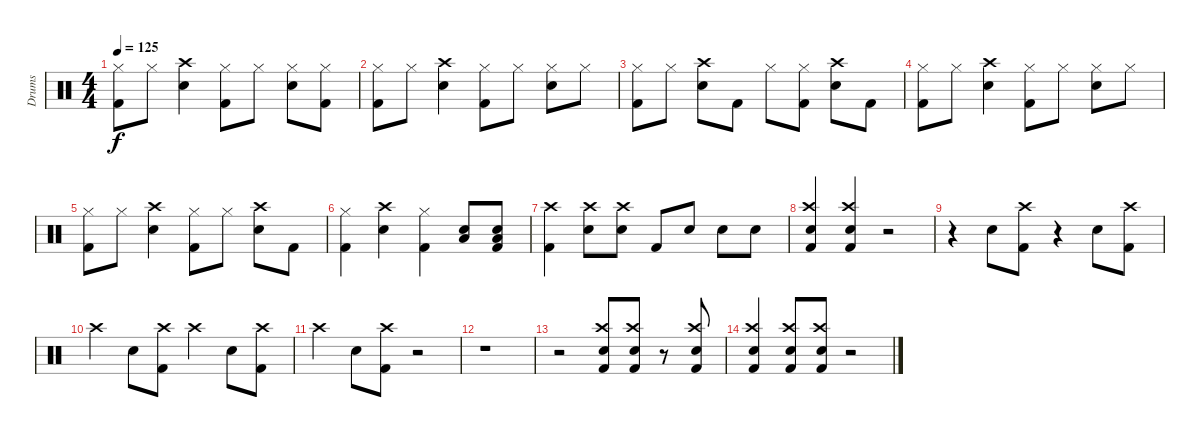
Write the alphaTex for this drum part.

\track ("Drums" "Drums") {instrument percussion}
\staff {score}
\articulation defaults
\ts (4 4)
\tempo 125
\clef neutral
\ks c
("Hi-Hat (closed)" "Kick (hit) 2").8{dy f} "Hi-Hat (closed)".8 ("Crash high (hit)" "Electric Snare (hit)").4 ("Hi-Hat (closed)" "Kick (hit) 2").8 "Hi-Hat (closed)".8 ("Hi-Hat (closed)" "Electric Snare (hit)").8 ("Hi-Hat (closed)" "Kick (hit) 2").8 |
("Hi-Hat (closed)" "Kick (hit) 2").8 "Hi-Hat (closed)".8 ("Crash high (hit)" "Electric Snare (hit)").4 ("Hi-Hat (closed)" "Kick (hit) 2").8 "Hi-Hat (closed)".8 ("Hi-Hat (closed)" "Electric Snare (hit)").8 "Hi-Hat (closed)".8 |
("Hi-Hat (closed)" "Kick (hit) 2").8 "Hi-Hat (closed)".8 ("Crash high (hit)" "Electric Snare (hit)").8 "Kick (hit) 2".8 "Hi-Hat (closed)".8 ("Hi-Hat (closed)" "Kick (hit) 2").8 ("Crash high (hit)" "Electric Snare (hit)").8 "Kick (hit) 2".8 |
("Hi-Hat (closed)" "Kick (hit) 2").8 "Hi-Hat (closed)".8 ("Crash high (hit)" "Electric Snare (hit)").4 ("Hi-Hat (closed)" "Kick (hit) 2").8 "Hi-Hat (closed)".8 ("Hi-Hat (closed)" "Electric Snare (hit)").8 "Hi-Hat (closed)".8 |
("Hi-Hat (closed)" "Kick (hit) 2").8 "Hi-Hat (closed)".8 ("Crash high (hit)" "Electric Snare (hit)").4 ("Hi-Hat (closed)" "Kick (hit) 2").8 "Hi-Hat (closed)".8 ("Crash high (hit)" "Electric Snare (hit)").8 "Kick (hit) 2".8 |
("Hi-Hat (closed)" "Kick (hit) 2").4 ("Crash high (hit)" "Electric Snare (hit)").4 ("Hi-Hat (closed)" "Kick (hit) 2").4 ("Low Tom (hit)" "Electric Snare (hit)").8 ("Low Tom (hit)" "Electric Snare (hit)" "Kick (hit) 2").8 |
("Crash high (hit)" "Kick (hit) 2").4 ("Crash high (hit)" "Electric Snare (hit)").8 ("Crash high (hit)" "Electric Snare (hit)").8 "Kick (hit) 2".8 "Electric Snare (hit)".8 "Electric Snare (hit)".8 "Electric Snare (hit)".8 |
("Crash high (hit)" "Electric Snare (hit)" "Kick (hit) 2").4 ("Crash high (hit)" "Electric Snare (hit)" "Kick (hit) 2").4 r.2 |
r.4 "Electric Snare (hit)".8 ("Crash high (hit)" "Kick (hit) 2").8 r.4 "Electric Snare (hit)".8 ("Crash high (hit)" "Kick (hit) 2").8 |
"Crash high (hit)".4 "Electric Snare (hit)".8 ("Crash high (hit)" "Kick (hit) 2").8 "Crash high (hit)".4 "Electric Snare (hit)".8 ("Crash high (hit)" "Kick (hit) 2").8 |
"Crash high (hit)".4 "Electric Snare (hit)".8 ("Crash high (hit)" "Kick (hit) 2").8 r.2 |
r.1 |
r.2 ("Crash high (hit)" "Electric Snare (hit)" "Kick (hit) 2").8 ("Crash high (hit)" "Electric Snare (hit)" "Kick (hit) 2").8 r.8 ("Crash high (hit)" "Electric Snare (hit)" "Kick (hit) 2").8 |
("Crash high (hit)" "Electric Snare (hit)" "Kick (hit) 2").4 ("Crash high (hit)" "Electric Snare (hit)" "Kick (hit) 2").8 ("Crash high (hit)" "Electric Snare (hit)" "Kick (hit) 2").8 r.2
